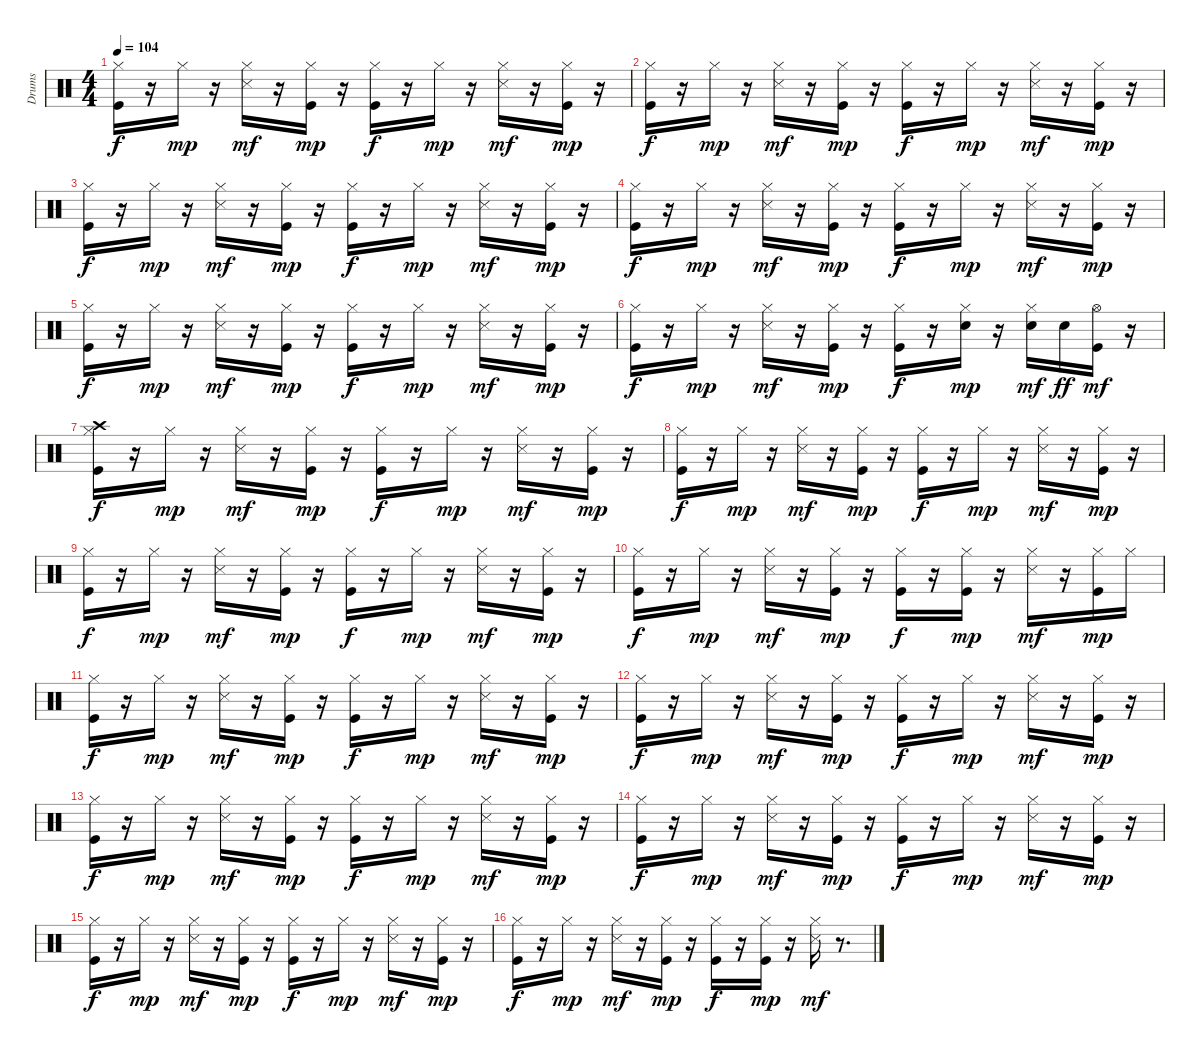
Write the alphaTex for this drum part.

\track ("Drums" "Drums") {instrument percussion}
\staff {score}
\articulation defaults
\ts (4 4)
\tempo 104
\clef neutral
\ks c
("Kick (hit)" "Hi-Hat (closed)").16{dy f} r.16 "Hi-Hat (closed)".16{dy mp} r.16 ("Hi-Hat (closed)" "Snare (side stick) 3").16{dy mf} r.16 ("Kick (hit)" "Hi-Hat (closed)").16{dy mp} r.16 ("Kick (hit)" "Hi-Hat (closed)").16{dy f} r.16 "Hi-Hat (closed)".16{dy mp} r.16 ("Hi-Hat (closed)" "Snare (side stick) 3").16{dy mf} r.16 ("Kick (hit)" "Hi-Hat (closed)").16{dy mp} r.16 |
("Kick (hit)" "Hi-Hat (closed)").16{dy f} r.16 "Hi-Hat (closed)".16{dy mp} r.16 ("Hi-Hat (closed)" "Snare (side stick) 3").16{dy mf} r.16 ("Kick (hit)" "Hi-Hat (closed)").16{dy mp} r.16 ("Kick (hit)" "Hi-Hat (closed)").16{dy f} r.16 "Hi-Hat (closed)".16{dy mp} r.16 ("Hi-Hat (closed)" "Snare (side stick) 3").16{dy mf} r.16 ("Kick (hit)" "Hi-Hat (closed)").16{dy mp} r.16 |
("Kick (hit)" "Hi-Hat (closed)").16{dy f} r.16 "Hi-Hat (closed)".16{dy mp} r.16 ("Hi-Hat (closed)" "Snare (side stick) 3").16{dy mf} r.16 ("Kick (hit)" "Hi-Hat (closed)").16{dy mp} r.16 ("Kick (hit)" "Hi-Hat (closed)").16{dy f} r.16 "Hi-Hat (closed)".16{dy mp} r.16 ("Hi-Hat (closed)" "Snare (side stick) 3").16{dy mf} r.16 ("Kick (hit)" "Hi-Hat (closed)").16{dy mp} r.16 |
("Kick (hit)" "Hi-Hat (closed)").16{dy f} r.16 "Hi-Hat (closed)".16{dy mp} r.16 ("Hi-Hat (closed)" "Snare (side stick) 3").16{dy mf} r.16 ("Kick (hit)" "Hi-Hat (closed)").16{dy mp} r.16 ("Kick (hit)" "Hi-Hat (closed)").16{dy f} r.16 "Hi-Hat (closed)".16{dy mp} r.16 ("Hi-Hat (closed)" "Snare (side stick) 3").16{dy mf} r.16 ("Kick (hit)" "Hi-Hat (closed)").16{dy mp} r.16 |
("Kick (hit)" "Hi-Hat (closed)").16{dy f} r.16 "Hi-Hat (closed)".16{dy mp} r.16 ("Hi-Hat (closed)" "Snare (side stick) 3").16{dy mf} r.16 ("Kick (hit)" "Hi-Hat (closed)").16{dy mp} r.16 ("Kick (hit)" "Hi-Hat (closed)").16{dy f} r.16 "Hi-Hat (closed)".16{dy mp} r.16 ("Hi-Hat (closed)" "Snare (side stick) 3").16{dy mf} r.16 ("Kick (hit)" "Hi-Hat (closed)").16{dy mp} r.16 |
("Kick (hit)" "Hi-Hat (closed)").16{dy f} r.16 "Hi-Hat (closed)".16{dy mp} r.16 ("Hi-Hat (closed)" "Snare (side stick) 3").16{dy mf} r.16 ("Kick (hit)" "Hi-Hat (closed)").16{dy mp} r.16 ("Kick (hit)" "Hi-Hat (closed)").16{dy f} r.16 ("Snare (hit) 2" "Hi-Hat (closed)").16{dy mp} r.16 ("Snare (hit) 2" "Hi-Hat (closed)").16{dy mf} "Snare (hit) 2".16{dy ff} ("Kick (hit)" "Hi-Hat (open)").16{dy mf} r.16 |
("Kick (hit)" "Hi-Hat (closed)" "Crash high (hit)").16{dy f} r.16 "Hi-Hat (closed)".16{dy mp} r.16 ("Hi-Hat (closed)" "Snare (side stick) 3").16{dy mf} r.16 ("Kick (hit)" "Hi-Hat (closed)").16{dy mp} r.16 ("Kick (hit)" "Hi-Hat (closed)").16{dy f} r.16 "Hi-Hat (closed)".16{dy mp} r.16 ("Hi-Hat (closed)" "Snare (side stick) 3").16{dy mf} r.16 ("Kick (hit)" "Hi-Hat (closed)").16{dy mp} r.16 |
("Kick (hit)" "Hi-Hat (closed)").16{dy f} r.16 "Hi-Hat (closed)".16{dy mp} r.16 ("Hi-Hat (closed)" "Snare (side stick) 3").16{dy mf} r.16 ("Kick (hit)" "Hi-Hat (closed)").16{dy mp} r.16 ("Kick (hit)" "Hi-Hat (closed)").16{dy f} r.16 "Hi-Hat (closed)".16{dy mp} r.16 ("Hi-Hat (closed)" "Snare (side stick) 3").16{dy mf} r.16 ("Kick (hit)" "Hi-Hat (closed)").16{dy mp} r.16 |
("Kick (hit)" "Hi-Hat (closed)").16{dy f} r.16 "Hi-Hat (closed)".16{dy mp} r.16 ("Hi-Hat (closed)" "Snare (side stick) 3").16{dy mf} r.16 ("Kick (hit)" "Hi-Hat (closed)").16{dy mp} r.16 ("Kick (hit)" "Hi-Hat (closed)").16{dy f} r.16 "Hi-Hat (closed)".16{dy mp} r.16 ("Hi-Hat (closed)" "Snare (side stick) 3").16{dy mf} r.16 ("Kick (hit)" "Hi-Hat (closed)").16{dy mp} r.16 |
("Kick (hit)" "Hi-Hat (closed)").16{dy f} r.16 "Hi-Hat (closed)".16{dy mp} r.16 ("Hi-Hat (closed)" "Snare (side stick) 3").16{dy mf} r.16 ("Kick (hit)" "Hi-Hat (closed)").16{dy mp} r.16 ("Kick (hit)" "Hi-Hat (closed)").16{dy f} r.16 ("Kick (hit)" "Hi-Hat (closed)").16{dy mp} r.16 ("Hi-Hat (closed)" "Snare (side stick) 3").16{dy mf} r.16 ("Kick (hit)" "Hi-Hat (closed)").16{dy mp} "Hi-Hat (closed)".16 |
("Kick (hit)" "Hi-Hat (closed)").16{dy f} r.16 "Hi-Hat (closed)".16{dy mp} r.16 ("Hi-Hat (closed)" "Snare (side stick) 3").16{dy mf} r.16 ("Kick (hit)" "Hi-Hat (closed)").16{dy mp} r.16 ("Kick (hit)" "Hi-Hat (closed)").16{dy f} r.16 "Hi-Hat (closed)".16{dy mp} r.16 ("Hi-Hat (closed)" "Snare (side stick) 3").16{dy mf} r.16 ("Kick (hit)" "Hi-Hat (closed)").16{dy mp} r.16 |
("Kick (hit)" "Hi-Hat (closed)").16{dy f} r.16 "Hi-Hat (closed)".16{dy mp} r.16 ("Hi-Hat (closed)" "Snare (side stick) 3").16{dy mf} r.16 ("Kick (hit)" "Hi-Hat (closed)").16{dy mp} r.16 ("Kick (hit)" "Hi-Hat (closed)").16{dy f} r.16 "Hi-Hat (closed)".16{dy mp} r.16 ("Hi-Hat (closed)" "Snare (side stick) 3").16{dy mf} r.16 ("Kick (hit)" "Hi-Hat (closed)").16{dy mp} r.16 |
("Kick (hit)" "Hi-Hat (closed)").16{dy f} r.16 "Hi-Hat (closed)".16{dy mp} r.16 ("Hi-Hat (closed)" "Snare (side stick) 3").16{dy mf} r.16 ("Kick (hit)" "Hi-Hat (closed)").16{dy mp} r.16 ("Kick (hit)" "Hi-Hat (closed)").16{dy f} r.16 "Hi-Hat (closed)".16{dy mp} r.16 ("Hi-Hat (closed)" "Snare (side stick) 3").16{dy mf} r.16 ("Kick (hit)" "Hi-Hat (closed)").16{dy mp} r.16 |
("Kick (hit)" "Hi-Hat (closed)").16{dy f} r.16 "Hi-Hat (closed)".16{dy mp} r.16 ("Hi-Hat (closed)" "Snare (side stick) 3").16{dy mf} r.16 ("Kick (hit)" "Hi-Hat (closed)").16{dy mp} r.16 ("Kick (hit)" "Hi-Hat (closed)").16{dy f} r.16 "Hi-Hat (closed)".16{dy mp} r.16 ("Hi-Hat (closed)" "Snare (side stick) 3").16{dy mf} r.16 ("Kick (hit)" "Hi-Hat (closed)").16{dy mp} r.16 |
("Kick (hit)" "Hi-Hat (closed)").16{dy f} r.16 "Hi-Hat (closed)".16{dy mp} r.16 ("Hi-Hat (closed)" "Snare (side stick) 3").16{dy mf} r.16 ("Kick (hit)" "Hi-Hat (closed)").16{dy mp} r.16 ("Kick (hit)" "Hi-Hat (closed)").16{dy f} r.16 "Hi-Hat (closed)".16{dy mp} r.16 ("Hi-Hat (closed)" "Snare (side stick) 3").16{dy mf} r.16 ("Kick (hit)" "Hi-Hat (closed)").16{dy mp} r.16 |
("Kick (hit)" "Hi-Hat (closed)").16{dy f} r.16 "Hi-Hat (closed)".16{dy mp} r.16 ("Hi-Hat (closed)" "Snare (side stick) 3").16{dy mf} r.16 ("Kick (hit)" "Hi-Hat (closed)").16{dy mp} r.16 ("Kick (hit)" "Hi-Hat (closed)").16{dy f} r.16 ("Kick (hit)" "Hi-Hat (closed)").16{dy mp} r.16 ("Snare (side stick) 3" "Hi-Hat (closed)").16{dy mf} r.8{d}
